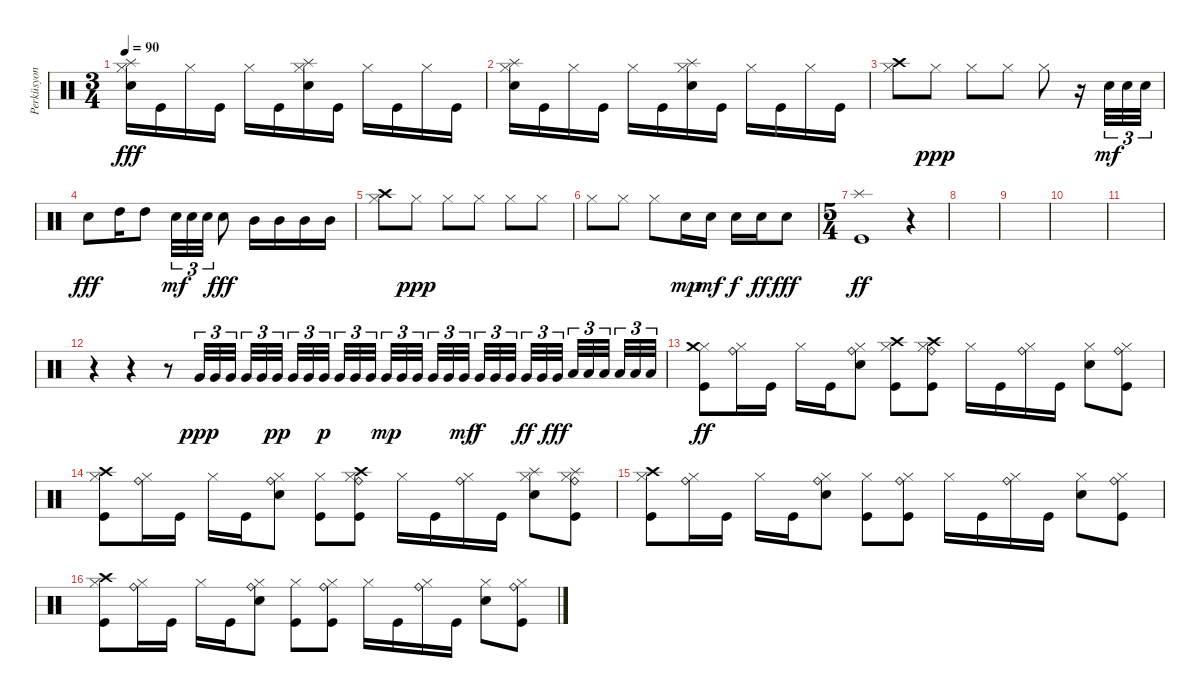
\track ("Perküsyon" "Perküsyon") {instrument percussion}
\staff {score}
\articulation defaults
\ts (3 4)
\tempo 90
\clef neutral
\ks c
("Electric Snare (hit)" "Hi-Hat (closed)" "Splash (hit)").16{dy fff} "Kick (hit)".16 "Hi-Hat (closed)".16 "Kick (hit)".16 "Hi-Hat (closed)".16 "Kick (hit)".16 ("Electric Snare (hit)" "Hi-Hat (closed)" "Splash (hit)").16 "Kick (hit)".16 "Hi-Hat (closed)".16 "Kick (hit)".16 "Hi-Hat (closed)".16 "Kick (hit)".16 |
("Electric Snare (hit)" "Hi-Hat (closed)" "Splash (hit)").16 "Kick (hit)".16 "Hi-Hat (closed)".16 "Kick (hit)".16 "Hi-Hat (closed)".16 "Kick (hit)".16 ("Electric Snare (hit)" "Hi-Hat (closed)" "Splash (hit)").16 "Kick (hit)".16 "Hi-Hat (closed)".16 "Kick (hit)".16 "Hi-Hat (closed)".16 "Kick (hit)".16 |
("Hi-Hat (closed)" "Crash high (hit)").8 "Hi-Hat (closed)".8{dy ppp} "Hi-Hat (closed)".8 "Hi-Hat (closed)".8 "Hi-Hat (closed)".8 r.16 "Electric Snare (hit)".32{tu (3 2) dy mf} "Electric Snare (hit)".32{tu (3 2)} "Electric Snare (hit)".32{tu (3 2)} |
"Electric Snare (hit)".8{dy fff} "High Tom (hit)".16 "High Tom (hit)".8 "Electric Snare (hit)".32{tu (3 2) dy mf} "Electric Snare (hit)".32{tu (3 2)} "Electric Snare (hit)".32{tu (3 2)} "Electric Snare (hit)".8{dy fff} "Mid Tom (hit)".16 "Mid Tom (hit)".16 "Mid Tom (hit)".16 "Mid Tom (hit)".16 |
("Hi-Hat (closed)" "Crash high (hit)").8 "Hi-Hat (closed)".8{dy ppp} "Hi-Hat (closed)".8 "Hi-Hat (closed)".8 "Hi-Hat (closed)".8 "Hi-Hat (closed)".8 |
"Hi-Hat (closed)".8 "Hi-Hat (closed)".8 "Hi-Hat (closed)".8 "Electric Snare (hit)".16{dy mp} "Electric Snare (hit)".16{dy mf} "Electric Snare (hit)".16{dy f} "Electric Snare (hit)".16{dy ff} "Electric Snare (hit)".8{dy fff} |
\ts (5 4)
("Kick (hit)" "Splash (hit)").1{dy ff} r.4 |
|
|
|
|
r.4 r.4 r.8 "Very Low Tom (hit)".32{tu (3 2) dy ppp} "Very Low Tom (hit)".32{tu (3 2)} "Very Low Tom (hit)".32{tu (3 2) beam splitsecondary} "Very Low Tom (hit)".32{tu (3 2)} "Very Low Tom (hit)".32{tu (3 2)} "Very Low Tom (hit)".32{tu (3 2) dy pp} "Very Low Tom (hit)".32{tu (3 2)} "Very Low Tom (hit)".32{tu (3 2)} "Very Low Tom (hit)".32{tu (3 2) dy p beam splitsecondary} "Very Low Tom (hit)".32{tu (3 2)} "Very Low Tom (hit)".32{tu (3 2)} "Very Low Tom (hit)".32{tu (3 2) beam splitsecondary} "Very Low Tom (hit)".32{tu (3 2) dy mp} "Very Low Tom (hit)".32{tu (3 2)} "Very Low Tom (hit)".32{tu (3 2) beam splitsecondary} "Very Low Tom (hit)".32{tu (3 2)} "Very Low Tom (hit)".32{tu (3 2)} "Very Low Tom (hit)".32{tu (3 2) dy mf} "Very Low Tom (hit)".32{tu (3 2) dy f} "Very Low Tom (hit)".32{tu (3 2)} "Very Low Tom (hit)".32{tu (3 2) beam splitsecondary} "Very Low Tom (hit)".32{tu (3 2) dy ff} "Very Low Tom (hit)".32{tu (3 2)} "Very Low Tom (hit)".32{tu (3 2) dy fff beam splitsecondary} "Low Floor Tom (hit)".32{tu (3 2)} "Low Floor Tom (hit)".32{tu (3 2)} "Low Floor Tom (hit)".32{tu (3 2) beam splitsecondary} "Low Floor Tom (hit)".32{tu (3 2)} "Low Floor Tom (hit)".32{tu (3 2)} "Low Floor Tom (hit)".32{tu (3 2)} |
("Hi-Hat (closed)" "Crash medium (hit)" "Kick (hit)").8{dy ff} ("Ride (bell)" "Hi-Hat (closed)").16 "Kick (hit)".16 "Hi-Hat (closed)".16 "Kick (hit)".16 ("Electric Snare (hit)" "Ride (bell)" "Hi-Hat (closed)").8 ("Hi-Hat (closed)" "Crash high (hit)" "Kick (hit)").8 ("Ride (bell)" "Hi-Hat (closed)" "Crash high (hit)" "Kick (hit)").8 "Hi-Hat (closed)".16 "Kick (hit)".16 ("Ride (bell)" "Hi-Hat (closed)").16 "Kick (hit)".16 ("Electric Snare (hit)" "Hi-Hat (closed)").8 ("Ride (bell)" "Hi-Hat (closed)" "Kick (hit)").8 |
("Hi-Hat (closed)" "Crash high (hit)" "Kick (hit)").8 ("Ride (bell)" "Hi-Hat (closed)").16 "Kick (hit)".16 "Hi-Hat (closed)".16 "Kick (hit)".16 ("Electric Snare (hit)" "Ride (bell)" "Hi-Hat (closed)").8 ("Hi-Hat (closed)" "Kick (hit)").8 ("Ride (bell)" "Hi-Hat (closed)" "Crash high (hit)" "Kick (hit)").8 "Hi-Hat (closed)".16 "Kick (hit)".16 ("Ride (bell)" "Hi-Hat (closed)").16 "Kick (hit)".16 ("Electric Snare (hit)" "Hi-Hat (closed)" "Splash (hit)").8 ("Ride (bell)" "Hi-Hat (closed)" "Splash (hit)" "Kick (hit)").8 |
("Hi-Hat (closed)" "Crash high (hit)" "Kick (hit)").8 ("Ride (bell)" "Hi-Hat (closed)").16 "Kick (hit)".16 "Hi-Hat (closed)".16 "Kick (hit)".16 ("Electric Snare (hit)" "Ride (bell)" "Hi-Hat (closed)").8 ("Hi-Hat (closed)" "Kick (hit)").8 ("Ride (bell)" "Hi-Hat (closed)" "Kick (hit)").8 "Hi-Hat (closed)".16 "Kick (hit)".16 ("Ride (bell)" "Hi-Hat (closed)").16 "Kick (hit)".16 ("Electric Snare (hit)" "Hi-Hat (closed)").8 ("Ride (bell)" "Hi-Hat (closed)" "Kick (hit)").8 |
("Hi-Hat (closed)" "Crash high (hit)" "Kick (hit)").8 ("Ride (bell)" "Hi-Hat (closed)").16 "Kick (hit)".16 "Hi-Hat (closed)".16 "Kick (hit)".16 ("Electric Snare (hit)" "Ride (bell)" "Hi-Hat (closed)").8 ("Hi-Hat (closed)" "Kick (hit)").8 ("Ride (bell)" "Hi-Hat (closed)" "Kick (hit)").8 "Hi-Hat (closed)".16 "Kick (hit)".16 ("Ride (bell)" "Hi-Hat (closed)").16 "Kick (hit)".16 ("Electric Snare (hit)" "Hi-Hat (closed)").8 ("Ride (bell)" "Hi-Hat (closed)" "Kick (hit)").8
